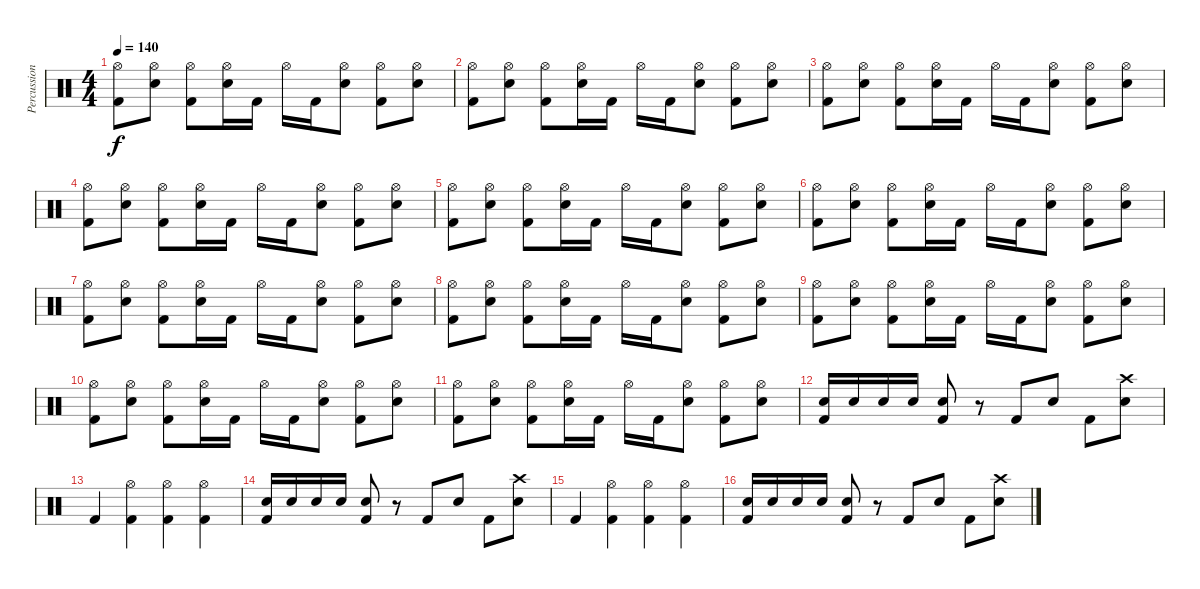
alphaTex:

\track ("Percussion" "Percussion") {instrument percussion}
\staff {score}
\articulation defaults
\ts (4 4)
\tempo 140
\clef neutral
\ks c
("Hi-Hat (open)" "Kick (hit) 2").8{dy f} ("Hi-Hat (open)" "Electric Snare (hit)").8 ("Hi-Hat (open)" "Kick (hit) 2").8 ("Hi-Hat (open)" "Electric Snare (hit)").16 "Kick (hit) 2".16 "Hi-Hat (open)".16 "Kick (hit) 2".16 ("Hi-Hat (open)" "Electric Snare (hit)").8 ("Hi-Hat (open)" "Kick (hit) 2").8 ("Hi-Hat (open)" "Electric Snare (hit)").8 |
("Hi-Hat (open)" "Kick (hit) 2").8 ("Hi-Hat (open)" "Electric Snare (hit)").8 ("Hi-Hat (open)" "Kick (hit) 2").8 ("Hi-Hat (open)" "Electric Snare (hit)").16 "Kick (hit) 2".16 "Hi-Hat (open)".16 "Kick (hit) 2".16 ("Hi-Hat (open)" "Electric Snare (hit)").8 ("Hi-Hat (open)" "Kick (hit) 2").8 ("Hi-Hat (open)" "Electric Snare (hit)").8 |
("Hi-Hat (open)" "Kick (hit) 2").8 ("Hi-Hat (open)" "Electric Snare (hit)").8 ("Hi-Hat (open)" "Kick (hit) 2").8 ("Hi-Hat (open)" "Electric Snare (hit)").16 "Kick (hit) 2".16 "Hi-Hat (open)".16 "Kick (hit) 2".16 ("Hi-Hat (open)" "Electric Snare (hit)").8 ("Hi-Hat (open)" "Kick (hit) 2").8 ("Hi-Hat (open)" "Electric Snare (hit)").8 |
("Hi-Hat (open)" "Kick (hit) 2").8 ("Hi-Hat (open)" "Electric Snare (hit)").8 ("Hi-Hat (open)" "Kick (hit) 2").8 ("Hi-Hat (open)" "Electric Snare (hit)").16 "Kick (hit) 2".16 "Hi-Hat (open)".16 "Kick (hit) 2".16 ("Hi-Hat (open)" "Electric Snare (hit)").8 ("Hi-Hat (open)" "Kick (hit) 2").8 ("Hi-Hat (open)" "Electric Snare (hit)").8 |
("Hi-Hat (open)" "Kick (hit) 2").8 ("Hi-Hat (open)" "Electric Snare (hit)").8 ("Hi-Hat (open)" "Kick (hit) 2").8 ("Hi-Hat (open)" "Electric Snare (hit)").16 "Kick (hit) 2".16 "Hi-Hat (open)".16 "Kick (hit) 2".16 ("Hi-Hat (open)" "Electric Snare (hit)").8 ("Hi-Hat (open)" "Kick (hit) 2").8 ("Hi-Hat (open)" "Electric Snare (hit)").8 |
("Hi-Hat (open)" "Kick (hit) 2").8 ("Hi-Hat (open)" "Electric Snare (hit)").8 ("Hi-Hat (open)" "Kick (hit) 2").8 ("Hi-Hat (open)" "Electric Snare (hit)").16 "Kick (hit) 2".16 "Hi-Hat (open)".16 "Kick (hit) 2".16 ("Hi-Hat (open)" "Electric Snare (hit)").8 ("Hi-Hat (open)" "Kick (hit) 2").8 ("Hi-Hat (open)" "Electric Snare (hit)").8 |
("Hi-Hat (open)" "Kick (hit) 2").8 ("Hi-Hat (open)" "Electric Snare (hit)").8 ("Hi-Hat (open)" "Kick (hit) 2").8 ("Hi-Hat (open)" "Electric Snare (hit)").16 "Kick (hit) 2".16 "Hi-Hat (open)".16 "Kick (hit) 2".16 ("Hi-Hat (open)" "Electric Snare (hit)").8 ("Hi-Hat (open)" "Kick (hit) 2").8 ("Hi-Hat (open)" "Electric Snare (hit)").8 |
("Hi-Hat (open)" "Kick (hit) 2").8 ("Hi-Hat (open)" "Electric Snare (hit)").8 ("Hi-Hat (open)" "Kick (hit) 2").8 ("Hi-Hat (open)" "Electric Snare (hit)").16 "Kick (hit) 2".16 "Hi-Hat (open)".16 "Kick (hit) 2".16 ("Hi-Hat (open)" "Electric Snare (hit)").8 ("Hi-Hat (open)" "Kick (hit) 2").8 ("Hi-Hat (open)" "Electric Snare (hit)").8 |
("Hi-Hat (open)" "Kick (hit) 2").8 ("Hi-Hat (open)" "Electric Snare (hit)").8 ("Hi-Hat (open)" "Kick (hit) 2").8 ("Hi-Hat (open)" "Electric Snare (hit)").16 "Kick (hit) 2".16 "Hi-Hat (open)".16 "Kick (hit) 2".16 ("Hi-Hat (open)" "Electric Snare (hit)").8 ("Hi-Hat (open)" "Kick (hit) 2").8 ("Hi-Hat (open)" "Electric Snare (hit)").8 |
("Hi-Hat (open)" "Kick (hit) 2").8 ("Hi-Hat (open)" "Electric Snare (hit)").8 ("Hi-Hat (open)" "Kick (hit) 2").8 ("Hi-Hat (open)" "Electric Snare (hit)").16 "Kick (hit) 2".16 "Hi-Hat (open)".16 "Kick (hit) 2".16 ("Hi-Hat (open)" "Electric Snare (hit)").8 ("Hi-Hat (open)" "Kick (hit) 2").8 ("Hi-Hat (open)" "Electric Snare (hit)").8 |
("Hi-Hat (open)" "Kick (hit) 2").8 ("Hi-Hat (open)" "Electric Snare (hit)").8 ("Hi-Hat (open)" "Kick (hit) 2").8 ("Hi-Hat (open)" "Electric Snare (hit)").16 "Kick (hit) 2".16 "Hi-Hat (open)".16 "Kick (hit) 2".16 ("Hi-Hat (open)" "Electric Snare (hit)").8 ("Hi-Hat (open)" "Kick (hit) 2").8 ("Hi-Hat (open)" "Electric Snare (hit)").8 |
("Electric Snare (hit)" "Kick (hit) 2").16 "Electric Snare (hit)".16 "Electric Snare (hit)".16 "Electric Snare (hit)".16 ("Electric Snare (hit)" "Kick (hit) 2").8 r.8 "Kick (hit) 2".8 "Electric Snare (hit)".8 "Kick (hit) 2".8 ("Crash high (hit)" "Electric Snare (hit)").8 |
"Kick (hit) 2".4 ("Hi-Hat (open)" "Kick (hit) 2").4 ("Hi-Hat (open)" "Kick (hit) 2").4 ("Hi-Hat (open)" "Kick (hit) 2").4 |
("Electric Snare (hit)" "Kick (hit) 2").16 "Electric Snare (hit)".16 "Electric Snare (hit)".16 "Electric Snare (hit)".16 ("Electric Snare (hit)" "Kick (hit) 2").8 r.8 "Kick (hit) 2".8 "Electric Snare (hit)".8 "Kick (hit) 2".8 ("Crash high (hit)" "Electric Snare (hit)").8 |
"Kick (hit) 2".4 ("Hi-Hat (open)" "Kick (hit) 2").4 ("Hi-Hat (open)" "Kick (hit) 2").4 ("Hi-Hat (open)" "Kick (hit) 2").4 |
("Electric Snare (hit)" "Kick (hit) 2").16 "Electric Snare (hit)".16 "Electric Snare (hit)".16 "Electric Snare (hit)".16 ("Electric Snare (hit)" "Kick (hit) 2").8 r.8 "Kick (hit) 2".8 "Electric Snare (hit)".8 "Kick (hit) 2".8 ("Crash high (hit)" "Electric Snare (hit)").8
